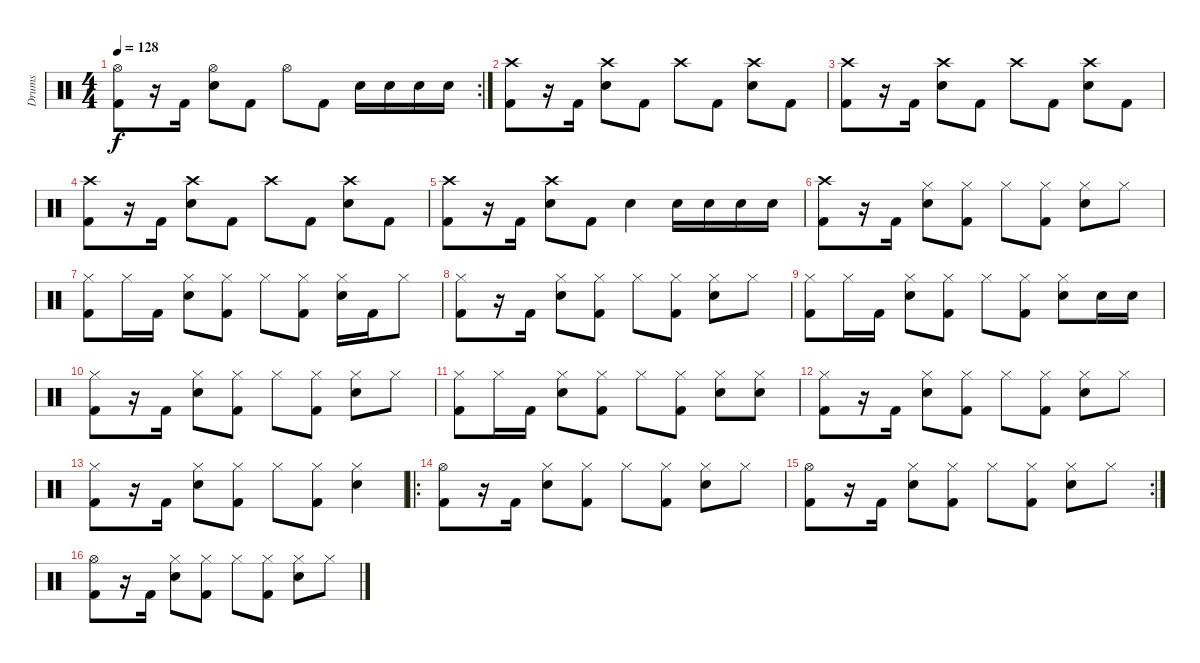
\track ("Drums" "Drums") {instrument percussion}
\staff {score}
\articulation defaults
\rc 2
\ts (4 4)
\tempo 128
\clef neutral
\ks c
("Hi-Hat (open)" "Kick (hit) 2").8{dy f} r.16 "Kick (hit) 2".16 ("Hi-Hat (open)" "Electric Snare (hit)").8 "Kick (hit) 2".8 "Hi-Hat (open)".8 "Kick (hit) 2".8 "Electric Snare (hit)".16 "Electric Snare (hit)".16 "Electric Snare (hit)".16 "Electric Snare (hit)".16 |
("Crash high (hit)" "Kick (hit) 2").8 r.16 "Kick (hit) 2".16 ("Crash high (hit)" "Electric Snare (hit)").8 "Kick (hit) 2".8 "Crash high (hit)".8 "Kick (hit) 2".8 ("Crash high (hit)" "Electric Snare (hit)").8 "Kick (hit) 2".8 |
("Crash high (hit)" "Kick (hit) 2").8 r.16 "Kick (hit) 2".16 ("Crash high (hit)" "Electric Snare (hit)").8 "Kick (hit) 2".8 "Crash high (hit)".8 "Kick (hit) 2".8 ("Crash high (hit)" "Electric Snare (hit)").8 "Kick (hit) 2".8 |
("Crash high (hit)" "Kick (hit) 2").8 r.16 "Kick (hit) 2".16 ("Crash high (hit)" "Electric Snare (hit)").8 "Kick (hit) 2".8 "Crash high (hit)".8 "Kick (hit) 2".8 ("Crash high (hit)" "Electric Snare (hit)").8 "Kick (hit) 2".8 |
("Crash high (hit)" "Kick (hit) 2").8 r.16 "Kick (hit) 2".16 ("Crash high (hit)" "Electric Snare (hit)").8 "Kick (hit) 2".8 "Electric Snare (hit)".4 "Electric Snare (hit)".16 "Electric Snare (hit)".16 "Electric Snare (hit)".16 "Electric Snare (hit)".16 |
("Crash high (hit)" "Kick (hit) 2").8 r.16 "Kick (hit) 2".16 ("Hi-Hat (closed)" "Electric Snare (hit)").8 ("Hi-Hat (closed)" "Kick (hit) 2").8 "Hi-Hat (closed)".8 ("Hi-Hat (closed)" "Kick (hit) 2").8 ("Hi-Hat (closed)" "Electric Snare (hit)").8 "Hi-Hat (closed)".8 |
("Hi-Hat (closed)" "Kick (hit) 2").8 "Hi-Hat (closed)".16 "Kick (hit) 2".16 ("Hi-Hat (closed)" "Electric Snare (hit)").8 ("Hi-Hat (closed)" "Kick (hit) 2").8 "Hi-Hat (closed)".8 ("Hi-Hat (closed)" "Kick (hit) 2").8 ("Hi-Hat (closed)" "Electric Snare (hit)").16 "Kick (hit) 2".16 "Hi-Hat (closed)".8 |
("Hi-Hat (closed)" "Kick (hit) 2").8 r.16 "Kick (hit) 2".16 ("Hi-Hat (closed)" "Electric Snare (hit)").8 ("Hi-Hat (closed)" "Kick (hit) 2").8 "Hi-Hat (closed)".8 ("Hi-Hat (closed)" "Kick (hit) 2").8 ("Hi-Hat (closed)" "Electric Snare (hit)").8 "Hi-Hat (closed)".8 |
("Hi-Hat (closed)" "Kick (hit) 2").8 "Hi-Hat (closed)".16 "Kick (hit) 2".16 ("Hi-Hat (closed)" "Electric Snare (hit)").8 ("Hi-Hat (closed)" "Kick (hit) 2").8 "Hi-Hat (closed)".8 ("Hi-Hat (closed)" "Kick (hit) 2").8 ("Hi-Hat (closed)" "Electric Snare (hit)").8 "Electric Snare (hit)".16 "Electric Snare (hit)".16 |
("Hi-Hat (closed)" "Kick (hit) 2").8 r.16 "Kick (hit) 2".16 ("Hi-Hat (closed)" "Electric Snare (hit)").8 ("Hi-Hat (closed)" "Kick (hit) 2").8 "Hi-Hat (closed)".8 ("Hi-Hat (closed)" "Kick (hit) 2").8 ("Hi-Hat (closed)" "Electric Snare (hit)").8 "Hi-Hat (closed)".8 |
("Hi-Hat (closed)" "Kick (hit) 2").8 "Hi-Hat (closed)".16 "Kick (hit) 2".16 ("Hi-Hat (closed)" "Electric Snare (hit)").8 ("Hi-Hat (closed)" "Kick (hit) 2").8 "Hi-Hat (closed)".8 ("Hi-Hat (closed)" "Kick (hit) 2").8 ("Hi-Hat (closed)" "Electric Snare (hit)").8 ("Hi-Hat (closed)" "Electric Snare (hit)").8 |
("Hi-Hat (closed)" "Kick (hit) 2").8 r.16 "Kick (hit) 2".16 ("Hi-Hat (closed)" "Electric Snare (hit)").8 ("Hi-Hat (closed)" "Kick (hit) 2").8 "Hi-Hat (closed)".8 ("Hi-Hat (closed)" "Kick (hit) 2").8 ("Hi-Hat (closed)" "Electric Snare (hit)").8 "Hi-Hat (closed)".8 |
("Hi-Hat (closed)" "Kick (hit) 2").8 r.16 "Kick (hit) 2".16 ("Hi-Hat (closed)" "Electric Snare (hit)").8 ("Hi-Hat (closed)" "Kick (hit) 2").8 "Hi-Hat (closed)".8 ("Hi-Hat (closed)" "Kick (hit) 2").8 ("Hi-Hat (closed)" "Electric Snare (hit)").4 |
\ro
("Hi-Hat (open)" "Kick (hit) 2").8 r.16 "Kick (hit) 2".16 ("Hi-Hat (closed)" "Electric Snare (hit)").8 ("Hi-Hat (closed)" "Kick (hit) 2").8 "Hi-Hat (closed)".8 ("Hi-Hat (closed)" "Kick (hit) 2").8 ("Hi-Hat (closed)" "Electric Snare (hit)").8 "Hi-Hat (closed)".8 |
\rc 2
("Hi-Hat (open)" "Kick (hit) 2").8 r.16 "Kick (hit) 2".16 ("Hi-Hat (closed)" "Electric Snare (hit)").8 ("Hi-Hat (closed)" "Kick (hit) 2").8 "Hi-Hat (closed)".8 ("Hi-Hat (closed)" "Kick (hit) 2").8 ("Hi-Hat (closed)" "Electric Snare (hit)").8 "Hi-Hat (closed)".8 |
("Hi-Hat (open)" "Kick (hit) 2").8 r.16 "Kick (hit) 2".16 ("Hi-Hat (closed)" "Electric Snare (hit)").8 ("Hi-Hat (closed)" "Kick (hit) 2").8 "Hi-Hat (closed)".8 ("Hi-Hat (closed)" "Kick (hit) 2").8 ("Hi-Hat (closed)" "Electric Snare (hit)").8 "Hi-Hat (closed)".8
